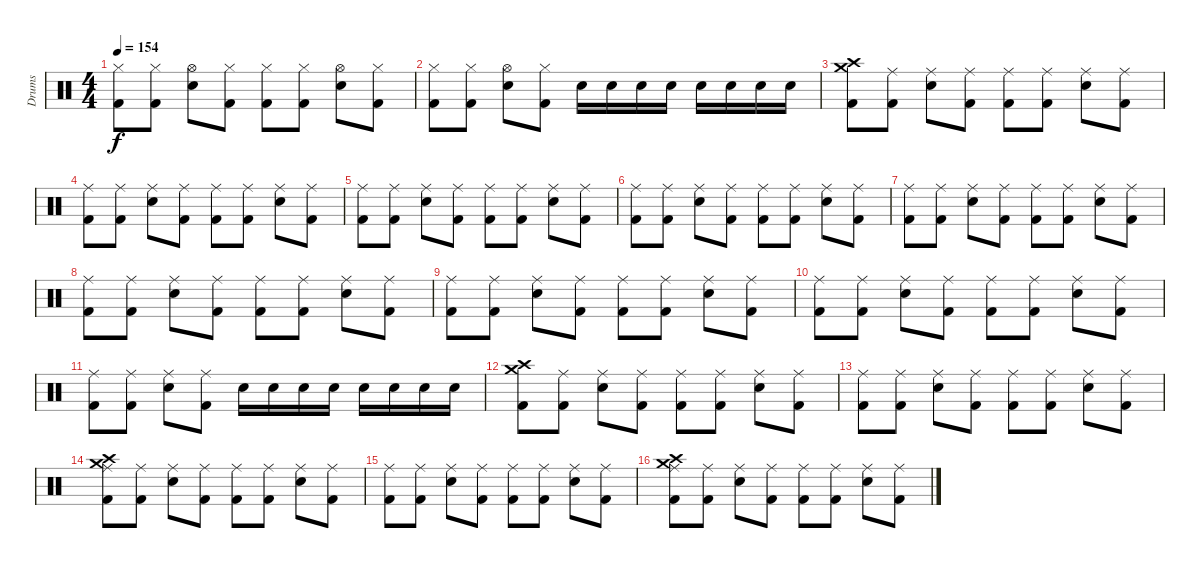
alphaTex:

\track ("Drums" "Drums") {instrument percussion}
\staff {score}
\articulation defaults
\ts (4 4)
\tempo 154
\clef neutral
\ks c
("Hi-Hat (closed)" "Kick (hit) 2").8{dy f} ("Hi-Hat (closed)" "Kick (hit) 2").8 ("Hi-Hat (open)" "Snare (hit) 2").8 ("Hi-Hat (closed)" "Kick (hit) 2").8 ("Hi-Hat (closed)" "Kick (hit) 2").8 ("Hi-Hat (closed)" "Kick (hit) 2").8 ("Hi-Hat (open)" "Snare (hit) 2").8 ("Hi-Hat (closed)" "Kick (hit) 2").8 |
("Hi-Hat (closed)" "Kick (hit) 2").8 ("Hi-Hat (closed)" "Kick (hit) 2").8 ("Hi-Hat (open)" "Snare (hit) 2").8 ("Hi-Hat (closed)" "Kick (hit) 2").8 "Snare (hit) 2".16 "Snare (hit) 2".16 "Snare (hit) 2".16 "Snare (hit) 2".16 "Snare (hit) 2".16 "Snare (hit) 2".16 "Snare (hit) 2".16 "Snare (hit) 2".16 |
("Crash high (hit)" "Crash medium (hit)" "Kick (hit) 2").8 ("Ride (middle)" "Kick (hit) 2").8 ("Ride (middle)" "Snare (hit) 2").8 ("Ride (middle)" "Kick (hit) 2").8 ("Ride (middle)" "Kick (hit) 2").8 ("Ride (middle)" "Kick (hit) 2").8 ("Ride (middle)" "Snare (hit) 2").8 ("Ride (middle)" "Kick (hit) 2").8 |
("Ride (middle)" "Kick (hit) 2").8 ("Ride (middle)" "Kick (hit) 2").8 ("Ride (middle)" "Snare (hit) 2").8 ("Ride (middle)" "Kick (hit) 2").8 ("Ride (middle)" "Kick (hit) 2").8 ("Ride (middle)" "Kick (hit) 2").8 ("Ride (middle)" "Snare (hit) 2").8 ("Ride (middle)" "Kick (hit) 2").8 |
("Ride (middle)" "Kick (hit) 2").8 ("Ride (middle)" "Kick (hit) 2").8 ("Ride (middle)" "Snare (hit) 2").8 ("Ride (middle)" "Kick (hit) 2").8 ("Ride (middle)" "Kick (hit) 2").8 ("Ride (middle)" "Kick (hit) 2").8 ("Ride (middle)" "Snare (hit) 2").8 ("Ride (middle)" "Kick (hit) 2").8 |
("Ride (middle)" "Kick (hit) 2").8 ("Ride (middle)" "Kick (hit) 2").8 ("Ride (middle)" "Snare (hit) 2").8 ("Ride (middle)" "Kick (hit) 2").8 ("Ride (middle)" "Kick (hit) 2").8 ("Ride (middle)" "Kick (hit) 2").8 ("Ride (middle)" "Snare (hit) 2").8 ("Ride (middle)" "Kick (hit) 2").8 |
("Ride (middle)" "Kick (hit) 2").8 ("Ride (middle)" "Kick (hit) 2").8 ("Ride (middle)" "Snare (hit) 2").8 ("Ride (middle)" "Kick (hit) 2").8 ("Ride (middle)" "Kick (hit) 2").8 ("Ride (middle)" "Kick (hit) 2").8 ("Ride (middle)" "Snare (hit) 2").8 ("Ride (middle)" "Kick (hit) 2").8 |
("Ride (middle)" "Kick (hit) 2").8 ("Ride (middle)" "Kick (hit) 2").8 ("Ride (middle)" "Snare (hit) 2").8 ("Ride (middle)" "Kick (hit) 2").8 ("Ride (middle)" "Kick (hit) 2").8 ("Ride (middle)" "Kick (hit) 2").8 ("Ride (middle)" "Snare (hit) 2").8 ("Ride (middle)" "Kick (hit) 2").8 |
("Ride (middle)" "Kick (hit) 2").8 ("Ride (middle)" "Kick (hit) 2").8 ("Ride (middle)" "Snare (hit) 2").8 ("Ride (middle)" "Kick (hit) 2").8 ("Ride (middle)" "Kick (hit) 2").8 ("Ride (middle)" "Kick (hit) 2").8 ("Ride (middle)" "Snare (hit) 2").8 ("Ride (middle)" "Kick (hit) 2").8 |
("Ride (middle)" "Kick (hit) 2").8 ("Ride (middle)" "Kick (hit) 2").8 ("Ride (middle)" "Snare (hit) 2").8 ("Ride (middle)" "Kick (hit) 2").8 ("Ride (middle)" "Kick (hit) 2").8 ("Ride (middle)" "Kick (hit) 2").8 ("Ride (middle)" "Snare (hit) 2").8 ("Ride (middle)" "Kick (hit) 2").8 |
("Ride (middle)" "Kick (hit) 2").8 ("Ride (middle)" "Kick (hit) 2").8 ("Ride (middle)" "Snare (hit) 2").8 ("Ride (middle)" "Kick (hit) 2").8 "Snare (hit) 2".16 "Snare (hit) 2".16 "Snare (hit) 2".16 "Snare (hit) 2".16 "Snare (hit) 2".16 "Snare (hit) 2".16 "Snare (hit) 2".16 "Snare (hit) 2".16 |
("Crash high (hit)" "Crash medium (hit)" "Kick (hit) 2").8 ("Ride (middle)" "Kick (hit) 2").8 ("Ride (middle)" "Snare (hit) 2").8 ("Ride (middle)" "Kick (hit) 2").8 ("Ride (middle)" "Kick (hit) 2").8 ("Ride (middle)" "Kick (hit) 2").8 ("Ride (middle)" "Snare (hit) 2").8 ("Ride (middle)" "Kick (hit) 2").8 |
("Ride (middle)" "Kick (hit) 2").8 ("Ride (middle)" "Kick (hit) 2").8 ("Ride (middle)" "Snare (hit) 2").8 ("Ride (middle)" "Kick (hit) 2").8 ("Ride (middle)" "Kick (hit) 2").8 ("Ride (middle)" "Kick (hit) 2").8 ("Ride (middle)" "Snare (hit) 2").8 ("Ride (middle)" "Kick (hit) 2").8 |
("Crash high (hit)" "Crash medium (hit)" "Ride (middle)" "Kick (hit) 2").8 ("Ride (middle)" "Kick (hit) 2").8 ("Ride (middle)" "Snare (hit) 2").8 ("Ride (middle)" "Kick (hit) 2").8 ("Ride (middle)" "Kick (hit) 2").8 ("Ride (middle)" "Kick (hit) 2").8 ("Ride (middle)" "Snare (hit) 2").8 ("Ride (middle)" "Kick (hit) 2").8 |
("Ride (middle)" "Kick (hit) 2").8 ("Ride (middle)" "Kick (hit) 2").8 ("Ride (middle)" "Snare (hit) 2").8 ("Ride (middle)" "Kick (hit) 2").8 ("Ride (middle)" "Kick (hit) 2").8 ("Ride (middle)" "Kick (hit) 2").8 ("Ride (middle)" "Snare (hit) 2").8 ("Ride (middle)" "Kick (hit) 2").8 |
("Crash high (hit)" "Crash medium (hit)" "Ride (middle)" "Kick (hit) 2").8 ("Ride (middle)" "Kick (hit) 2").8 ("Ride (middle)" "Snare (hit) 2").8 ("Ride (middle)" "Kick (hit) 2").8 ("Ride (middle)" "Kick (hit) 2").8 ("Ride (middle)" "Kick (hit) 2").8 ("Ride (middle)" "Snare (hit) 2").8 ("Ride (middle)" "Kick (hit) 2").8
